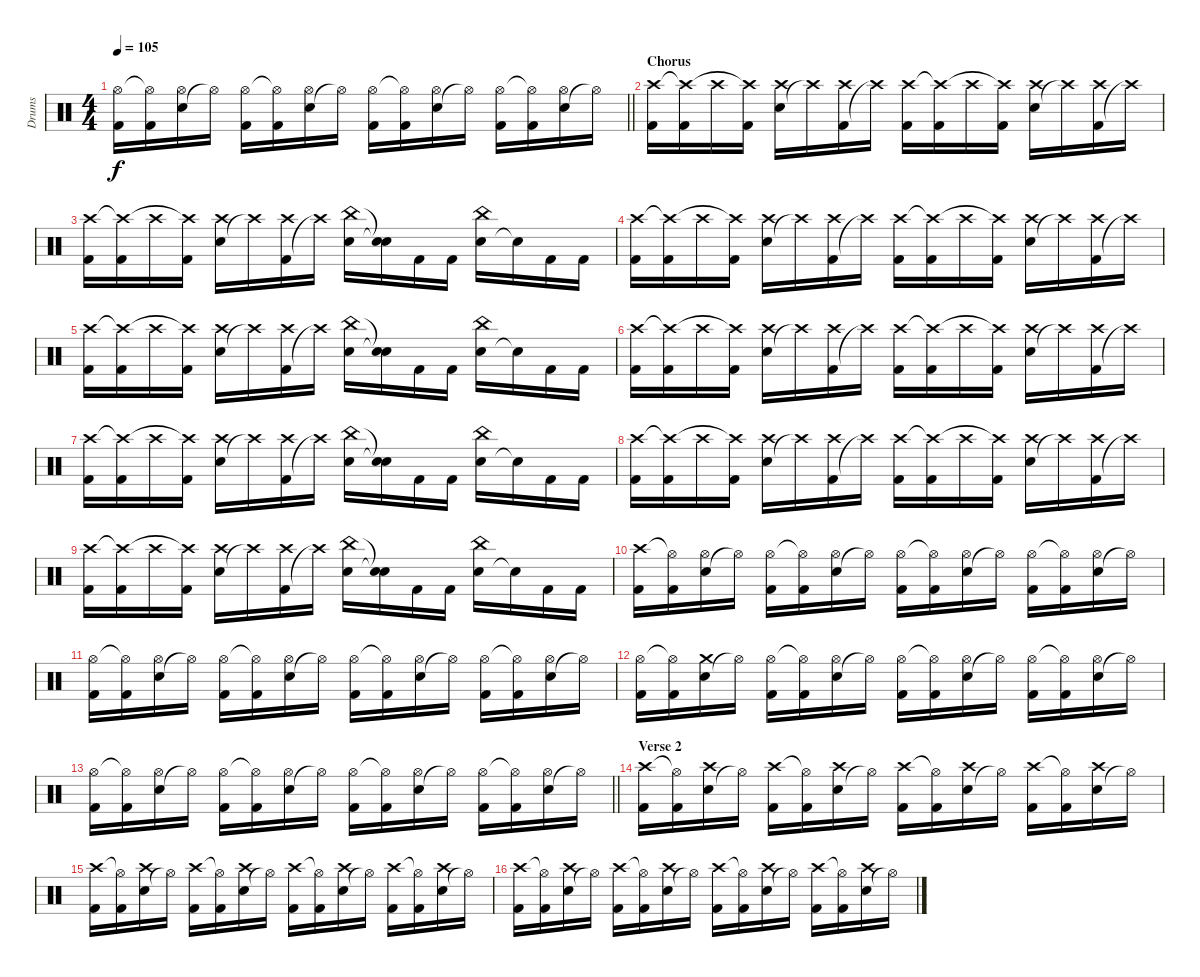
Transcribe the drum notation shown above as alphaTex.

\track ("Drums" "Drums") {instrument percussion}
\staff {score}
\articulation defaults
\ts (4 4)
\tempo 105
\clef neutral
\barLineRight lightlight
\ks c
("Kick (hit) 2" "Hi-Hat (open)").16{dy f} ("Kick (hit) 2" "Hi-Hat (open)"{t}).16 ("Snare (hit) 2" "Hi-Hat (open)").16 "Hi-Hat (open)"{t}.16 ("Kick (hit) 2" "Hi-Hat (open)").16 ("Kick (hit) 2" "Hi-Hat (open)"{t}).16 ("Snare (hit) 2" "Hi-Hat (open)").16 "Hi-Hat (open)"{t}.16 ("Kick (hit) 2" "Hi-Hat (open)").16 ("Kick (hit) 2" "Hi-Hat (open)"{t}).16 ("Snare (hit) 2" "Hi-Hat (open)").16 "Hi-Hat (open)"{t}.16 ("Kick (hit) 2" "Hi-Hat (open)").16 ("Kick (hit) 2" "Hi-Hat (open)"{t}).16 ("Snare (hit) 2" "Hi-Hat (open)").16 "Hi-Hat (open)"{t}.16 |
\section ("" "Chorus")
("Kick (hit) 2" "Crash high (hit)").16 ("Kick (hit) 2" "Crash high (hit)"{t}).16 "Crash high (hit)".16 ("Kick (hit) 2" "Crash high (hit)"{t}).16 ("Snare (hit) 2" "Crash high (hit)").16 "Crash high (hit)"{t}.16 ("Kick (hit) 2" "Crash high (hit)").16 "Crash high (hit)"{t}.16 ("Kick (hit) 2" "Crash high (hit)").16 ("Kick (hit) 2" "Crash high (hit)"{t}).16 "Crash high (hit)".16 ("Kick (hit) 2" "Crash high (hit)"{t}).16 ("Snare (hit) 2" "Crash high (hit)").16 "Crash high (hit)"{t}.16 ("Kick (hit) 2" "Crash high (hit)").16 "Crash high (hit)"{t}.16 |
("Kick (hit) 2" "Crash high (hit)").16 ("Kick (hit) 2" "Crash high (hit)"{t}).16 "Crash high (hit)".16 ("Kick (hit) 2" "Crash high (hit)"{t}).16 ("Snare (hit) 2" "Crash high (hit)").16 "Crash high (hit)"{t}.16 ("Kick (hit) 2" "Crash high (hit)").16 "Crash high (hit)"{t}.16 ("Snare (hit) 2" "China (hit)").16 ("Snare (hit)"{t} "Snare (hit) 2"{t}).16 "Kick (hit) 2".16 "Kick (hit) 2".16 ("Snare (hit) 2" "China (hit)").16 "Snare (hit)"{t}.16 "Kick (hit) 2".16 "Kick (hit) 2".16 |
("Kick (hit) 2" "Crash high (hit)").16 ("Kick (hit) 2" "Crash high (hit)"{t}).16 "Crash high (hit)".16 ("Kick (hit) 2" "Crash high (hit)"{t}).16 ("Snare (hit) 2" "Crash high (hit)").16 "Crash high (hit)"{t}.16 ("Kick (hit) 2" "Crash high (hit)").16 "Crash high (hit)"{t}.16 ("Kick (hit) 2" "Crash high (hit)").16 ("Kick (hit) 2" "Crash high (hit)"{t}).16 "Crash high (hit)".16 ("Kick (hit) 2" "Crash high (hit)"{t}).16 ("Snare (hit) 2" "Crash high (hit)").16 "Crash high (hit)"{t}.16 ("Kick (hit) 2" "Crash high (hit)").16 "Crash high (hit)"{t}.16 |
("Kick (hit) 2" "Crash high (hit)").16 ("Kick (hit) 2" "Crash high (hit)"{t}).16 "Crash high (hit)".16 ("Kick (hit) 2" "Crash high (hit)"{t}).16 ("Snare (hit) 2" "Crash high (hit)").16 "Crash high (hit)"{t}.16 ("Kick (hit) 2" "Crash high (hit)").16 "Crash high (hit)"{t}.16 ("Snare (hit) 2" "China (hit)").16 ("Snare (hit)"{t} "Snare (hit) 2"{t}).16 "Kick (hit) 2".16 "Kick (hit) 2".16 ("Snare (hit) 2" "China (hit)").16 "Snare (hit)"{t}.16 "Kick (hit) 2".16 "Kick (hit) 2".16 |
("Kick (hit) 2" "Crash high (hit)").16 ("Kick (hit) 2" "Crash high (hit)"{t}).16 "Crash high (hit)".16 ("Kick (hit) 2" "Crash high (hit)"{t}).16 ("Snare (hit) 2" "Crash high (hit)").16 "Crash high (hit)"{t}.16 ("Kick (hit) 2" "Crash high (hit)").16 "Crash high (hit)"{t}.16 ("Kick (hit) 2" "Crash high (hit)").16 ("Kick (hit) 2" "Crash high (hit)"{t}).16 "Crash high (hit)".16 ("Kick (hit) 2" "Crash high (hit)"{t}).16 ("Snare (hit) 2" "Crash high (hit)").16 "Crash high (hit)"{t}.16 ("Kick (hit) 2" "Crash high (hit)").16 "Crash high (hit)"{t}.16 |
("Kick (hit) 2" "Crash high (hit)").16 ("Kick (hit) 2" "Crash high (hit)"{t}).16 "Crash high (hit)".16 ("Kick (hit) 2" "Crash high (hit)"{t}).16 ("Snare (hit) 2" "Crash high (hit)").16 "Crash high (hit)"{t}.16 ("Kick (hit) 2" "Crash high (hit)").16 "Crash high (hit)"{t}.16 ("Snare (hit) 2" "China (hit)").16 ("Snare (hit)"{t} "Snare (hit) 2"{t}).16 "Kick (hit) 2".16 "Kick (hit) 2".16 ("Snare (hit) 2" "China (hit)").16 "Snare (hit)"{t}.16 "Kick (hit) 2".16 "Kick (hit) 2".16 |
("Kick (hit) 2" "Crash high (hit)").16 ("Kick (hit) 2" "Crash high (hit)"{t}).16 "Crash high (hit)".16 ("Kick (hit) 2" "Crash high (hit)"{t}).16 ("Snare (hit) 2" "Crash high (hit)").16 "Crash high (hit)"{t}.16 ("Kick (hit) 2" "Crash high (hit)").16 "Crash high (hit)"{t}.16 ("Kick (hit) 2" "Crash high (hit)").16 ("Kick (hit) 2" "Crash high (hit)"{t}).16 "Crash high (hit)".16 ("Kick (hit) 2" "Crash high (hit)"{t}).16 ("Snare (hit) 2" "Crash high (hit)").16 "Crash high (hit)"{t}.16 ("Kick (hit) 2" "Crash high (hit)").16 "Crash high (hit)"{t}.16 |
("Kick (hit) 2" "Crash high (hit)").16 ("Kick (hit) 2" "Crash high (hit)"{t}).16 "Crash high (hit)".16 ("Kick (hit) 2" "Crash high (hit)"{t}).16 ("Snare (hit) 2" "Crash high (hit)").16 "Crash high (hit)"{t}.16 ("Kick (hit) 2" "Crash high (hit)").16 "Crash high (hit)"{t}.16 ("Snare (hit) 2" "China (hit)").16 ("Snare (hit)"{t} "Snare (hit) 2"{t}).16 "Kick (hit) 2".16 "Kick (hit) 2".16 ("Snare (hit) 2" "China (hit)").16 "Snare (hit)"{t}.16 "Kick (hit) 2".16 "Kick (hit) 2".16 |
("Kick (hit) 2" "Crash high (hit)").16 ("Kick (hit) 2" "Hi-Hat (open)"{t}).16 ("Snare (hit) 2" "Hi-Hat (open)").16 "Hi-Hat (open)"{t}.16 ("Kick (hit) 2" "Hi-Hat (open)").16 ("Kick (hit) 2" "Hi-Hat (open)"{t}).16 ("Snare (hit) 2" "Hi-Hat (open)").16 "Hi-Hat (open)"{t}.16 ("Kick (hit) 2" "Hi-Hat (open)").16 ("Kick (hit) 2" "Hi-Hat (open)"{t}).16 ("Snare (hit) 2" "Hi-Hat (open)").16 "Hi-Hat (open)"{t}.16 ("Kick (hit) 2" "Hi-Hat (open)").16 ("Kick (hit) 2" "Hi-Hat (open)"{t}).16 ("Snare (hit) 2" "Hi-Hat (open)").16 "Hi-Hat (open)"{t}.16 |
("Kick (hit) 2" "Hi-Hat (open)").16 ("Kick (hit) 2" "Hi-Hat (open)"{t}).16 ("Snare (hit) 2" "Hi-Hat (open)").16 "Hi-Hat (open)"{t}.16 ("Kick (hit) 2" "Hi-Hat (open)").16 ("Kick (hit) 2" "Hi-Hat (open)"{t}).16 ("Snare (hit) 2" "Hi-Hat (open)").16 "Hi-Hat (open)"{t}.16 ("Kick (hit) 2" "Hi-Hat (open)").16 ("Kick (hit) 2" "Hi-Hat (open)"{t}).16 ("Snare (hit) 2" "Hi-Hat (open)").16 "Hi-Hat (open)"{t}.16 ("Kick (hit) 2" "Hi-Hat (open)").16 ("Kick (hit) 2" "Hi-Hat (open)"{t}).16 ("Snare (hit) 2" "Hi-Hat (open)").16 "Hi-Hat (open)"{t}.16 |
("Kick (hit) 2" "Hi-Hat (open)").16 ("Kick (hit) 2" "Hi-Hat (open)"{t}).16 ("Snare (hit) 2" "Crash medium (hit)").16 "Hi-Hat (open)"{t}.16 ("Kick (hit) 2" "Hi-Hat (open)").16 ("Kick (hit) 2" "Hi-Hat (open)"{t}).16 ("Snare (hit) 2" "Hi-Hat (open)").16 "Hi-Hat (open)"{t}.16 ("Kick (hit) 2" "Hi-Hat (open)").16 ("Kick (hit) 2" "Hi-Hat (open)"{t}).16 ("Snare (hit) 2" "Hi-Hat (open)").16 "Hi-Hat (open)"{t}.16 ("Kick (hit) 2" "Hi-Hat (open)").16 ("Kick (hit) 2" "Hi-Hat (open)"{t}).16 ("Snare (hit) 2" "Hi-Hat (open)").16 "Hi-Hat (open)"{t}.16 |
\barLineRight lightlight
("Kick (hit) 2" "Hi-Hat (open)").16 ("Kick (hit) 2" "Hi-Hat (open)"{t}).16 ("Snare (hit) 2" "Hi-Hat (open)").16 "Hi-Hat (open)"{t}.16 ("Kick (hit) 2" "Hi-Hat (open)").16 ("Kick (hit) 2" "Hi-Hat (open)"{t}).16 ("Snare (hit) 2" "Hi-Hat (open)").16 "Hi-Hat (open)"{t}.16 ("Kick (hit) 2" "Hi-Hat (open)").16 ("Kick (hit) 2" "Hi-Hat (open)"{t}).16 ("Snare (hit) 2" "Hi-Hat (open)").16 "Hi-Hat (open)"{t}.16 ("Kick (hit) 2" "Hi-Hat (open)").16 ("Kick (hit) 2" "Hi-Hat (open)"{t}).16 ("Snare (hit) 2" "Hi-Hat (open)").16 "Hi-Hat (open)"{t}.16 |
\section ("" "Verse 2")
("Kick (hit) 2" "Crash high (hit)").16 ("Kick (hit) 2" "Hi-Hat (open)"{t}).16 ("Snare (hit) 2" "Crash high (hit)").16 "Hi-Hat (open)"{t}.16 ("Kick (hit) 2" "Crash high (hit)").16 ("Kick (hit) 2" "Hi-Hat (open)"{t}).16 ("Snare (hit) 2" "Crash high (hit)").16 "Hi-Hat (open)"{t}.16 ("Kick (hit) 2" "Crash high (hit)").16 ("Kick (hit) 2" "Hi-Hat (open)"{t}).16 ("Snare (hit) 2" "Crash high (hit)").16 "Hi-Hat (open)"{t}.16 ("Kick (hit) 2" "Crash high (hit)").16 ("Kick (hit) 2" "Hi-Hat (open)"{t}).16 ("Snare (hit) 2" "Crash high (hit)").16 "Hi-Hat (open)"{t}.16 |
("Kick (hit) 2" "Crash high (hit)").16 ("Kick (hit) 2" "Hi-Hat (open)"{t}).16 ("Snare (hit) 2" "Crash high (hit)").16 "Hi-Hat (open)"{t}.16 ("Kick (hit) 2" "Crash high (hit)").16 ("Kick (hit) 2" "Hi-Hat (open)"{t}).16 ("Snare (hit) 2" "Crash high (hit)").16 "Hi-Hat (open)"{t}.16 ("Kick (hit) 2" "Crash high (hit)").16 ("Kick (hit) 2" "Hi-Hat (open)"{t}).16 ("Snare (hit) 2" "Crash high (hit)").16 "Hi-Hat (open)"{t}.16 ("Kick (hit) 2" "Crash high (hit)").16 ("Kick (hit) 2" "Hi-Hat (open)"{t}).16 ("Snare (hit) 2" "Crash high (hit)").16 "Hi-Hat (open)"{t}.16 |
("Kick (hit) 2" "Crash high (hit)").16 ("Kick (hit) 2" "Hi-Hat (open)"{t}).16 ("Snare (hit) 2" "Crash high (hit)").16 "Hi-Hat (open)"{t}.16 ("Kick (hit) 2" "Crash high (hit)").16 ("Kick (hit) 2" "Hi-Hat (open)"{t}).16 ("Snare (hit) 2" "Crash high (hit)").16 "Hi-Hat (open)"{t}.16 ("Kick (hit) 2" "Crash high (hit)").16 ("Kick (hit) 2" "Hi-Hat (open)"{t}).16 ("Snare (hit) 2" "Crash high (hit)").16 "Hi-Hat (open)"{t}.16 ("Kick (hit) 2" "Crash high (hit)").16 ("Kick (hit) 2" "Hi-Hat (open)"{t}).16 ("Snare (hit) 2" "Crash high (hit)").16 "Hi-Hat (open)"{t}.16
